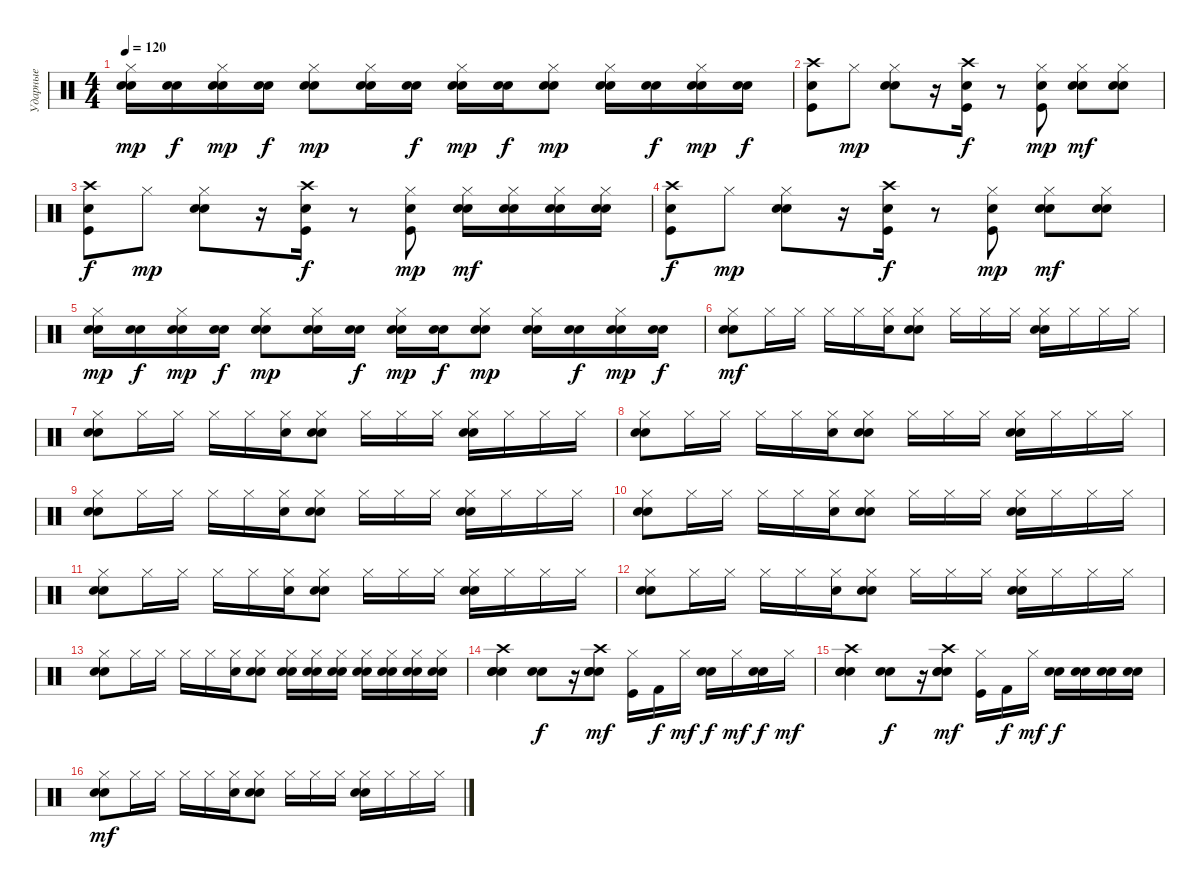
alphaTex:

\track ("Ударные" "Ударные") {instrument percussion}
\staff {score}
\articulation defaults
\ts (4 4)
\tempo 120
\clef neutral
\ks c
("Hi-Hat (closed)" "Electric Snare (hit)" "Electric Snare (hit)").16{dy mp} ("Electric Snare (hit)" "Electric Snare (hit)").16{dy f} ("Hi-Hat (closed)" "Electric Snare (hit)" "Electric Snare (hit)").16{dy mp} ("Electric Snare (hit)" "Electric Snare (hit)").16{dy f} ("Hi-Hat (closed)" "Electric Snare (hit)" "Electric Snare (hit)").8{dy mp} ("Hi-Hat (closed)" "Electric Snare (hit)" "Electric Snare (hit)").16 ("Electric Snare (hit)" "Electric Snare (hit)").16{dy f} ("Hi-Hat (closed)" "Electric Snare (hit)" "Electric Snare (hit)").16{dy mp} ("Electric Snare (hit)" "Electric Snare (hit)").16{dy f} ("Hi-Hat (closed)" "Electric Snare (hit)" "Electric Snare (hit)").8{dy mp} ("Hi-Hat (closed)" "Electric Snare (hit)" "Electric Snare (hit)").16 ("Electric Snare (hit)" "Electric Snare (hit)").16{dy f} ("Hi-Hat (closed)" "Electric Snare (hit)" "Electric Snare (hit)").16{dy mp} ("Electric Snare (hit)" "Electric Snare (hit)").16{dy f} |
("Crash high (hit)" "Kick (hit)" "Snare (hit) 2").8 "Hi-Hat (closed)".8{dy mp} ("Hi-Hat (closed)" "Electric Snare (hit)" "Electric Snare (hit)").8 r.16 ("Crash high (hit)" "Kick (hit)" "Snare (hit) 2").16{dy f} r.8 ("Hi-Hat (closed)" "Kick (hit)" "Snare (hit) 2").8{dy mp} ("Hi-Hat (closed)" "Electric Snare (hit)" "Electric Snare (hit)").8{dy mf} ("Hi-Hat (closed)" "Electric Snare (hit)" "Electric Snare (hit)").8 |
("Crash high (hit)" "Kick (hit)" "Snare (hit) 2").8{dy f} "Hi-Hat (closed)".8{dy mp} ("Hi-Hat (closed)" "Electric Snare (hit)" "Electric Snare (hit)").8 r.16 ("Crash high (hit)" "Kick (hit)" "Snare (hit) 2").16{dy f} r.8 ("Hi-Hat (closed)" "Kick (hit)" "Snare (hit) 2").8{dy mp} ("Hi-Hat (closed)" "Electric Snare (hit)" "Electric Snare (hit)").16{dy mf} ("Hi-Hat (closed)" "Electric Snare (hit)" "Electric Snare (hit)").16 ("Hi-Hat (closed)" "Electric Snare (hit)" "Electric Snare (hit)").16 ("Hi-Hat (closed)" "Electric Snare (hit)" "Electric Snare (hit)").16 |
("Crash high (hit)" "Kick (hit)" "Snare (hit) 2").8{dy f} "Hi-Hat (closed)".8{dy mp} ("Hi-Hat (closed)" "Electric Snare (hit)" "Electric Snare (hit)").8 r.16 ("Crash high (hit)" "Kick (hit)" "Snare (hit) 2").16{dy f} r.8 ("Hi-Hat (closed)" "Kick (hit)" "Snare (hit) 2").8{dy mp} ("Hi-Hat (closed)" "Electric Snare (hit)" "Electric Snare (hit)").8{dy mf} ("Hi-Hat (closed)" "Electric Snare (hit)" "Electric Snare (hit)").8 |
("Hi-Hat (closed)" "Electric Snare (hit)" "Electric Snare (hit)").16{dy mp} ("Electric Snare (hit)" "Electric Snare (hit)").16{dy f} ("Hi-Hat (closed)" "Electric Snare (hit)" "Electric Snare (hit)").16{dy mp} ("Electric Snare (hit)" "Electric Snare (hit)").16{dy f} ("Hi-Hat (closed)" "Electric Snare (hit)" "Electric Snare (hit)").8{dy mp} ("Hi-Hat (closed)" "Electric Snare (hit)" "Electric Snare (hit)").16 ("Electric Snare (hit)" "Electric Snare (hit)").16{dy f} ("Hi-Hat (closed)" "Electric Snare (hit)" "Electric Snare (hit)").16{dy mp} ("Electric Snare (hit)" "Electric Snare (hit)").16{dy f} ("Hi-Hat (closed)" "Electric Snare (hit)" "Electric Snare (hit)").8{dy mp} ("Hi-Hat (closed)" "Electric Snare (hit)" "Electric Snare (hit)").16 ("Electric Snare (hit)" "Electric Snare (hit)").16{dy f} ("Hi-Hat (closed)" "Electric Snare (hit)" "Electric Snare (hit)").16{dy mp} ("Electric Snare (hit)" "Electric Snare (hit)").16{dy f} |
("Hi-Hat (closed)" "Electric Snare (hit)" "Electric Snare (hit)").8{dy mf} "Hi-Hat (closed)".16 "Hi-Hat (closed)".16 "Hi-Hat (closed)".16 "Hi-Hat (closed)".16 ("Hi-Hat (closed)" "Electric Snare (hit)").16 ("Hi-Hat (closed)" "Electric Snare (hit)" "Electric Snare (hit)").8 "Hi-Hat (closed)".16 "Hi-Hat (closed)".16 "Hi-Hat (closed)".16 ("Hi-Hat (closed)" "Electric Snare (hit)" "Electric Snare (hit)").16 "Hi-Hat (closed)".16 "Hi-Hat (closed)".16 "Hi-Hat (closed)".16 |
("Hi-Hat (closed)" "Electric Snare (hit)" "Electric Snare (hit)").8 "Hi-Hat (closed)".16 "Hi-Hat (closed)".16 "Hi-Hat (closed)".16 "Hi-Hat (closed)".16 ("Hi-Hat (closed)" "Electric Snare (hit)").16 ("Hi-Hat (closed)" "Electric Snare (hit)" "Electric Snare (hit)").8 "Hi-Hat (closed)".16 "Hi-Hat (closed)".16 "Hi-Hat (closed)".16 ("Hi-Hat (closed)" "Electric Snare (hit)" "Electric Snare (hit)").16 "Hi-Hat (closed)".16 "Hi-Hat (closed)".16 "Hi-Hat (closed)".16 |
("Hi-Hat (closed)" "Electric Snare (hit)" "Electric Snare (hit)").8 "Hi-Hat (closed)".16 "Hi-Hat (closed)".16 "Hi-Hat (closed)".16 "Hi-Hat (closed)".16 ("Hi-Hat (closed)" "Electric Snare (hit)").16 ("Hi-Hat (closed)" "Electric Snare (hit)" "Electric Snare (hit)").8 "Hi-Hat (closed)".16 "Hi-Hat (closed)".16 "Hi-Hat (closed)".16 ("Hi-Hat (closed)" "Electric Snare (hit)" "Electric Snare (hit)").16 "Hi-Hat (closed)".16 "Hi-Hat (closed)".16 "Hi-Hat (closed)".16 |
("Hi-Hat (closed)" "Electric Snare (hit)" "Electric Snare (hit)").8 "Hi-Hat (closed)".16 "Hi-Hat (closed)".16 "Hi-Hat (closed)".16 "Hi-Hat (closed)".16 ("Hi-Hat (closed)" "Electric Snare (hit)").16 ("Hi-Hat (closed)" "Electric Snare (hit)" "Electric Snare (hit)").8 "Hi-Hat (closed)".16 "Hi-Hat (closed)".16 "Hi-Hat (closed)".16 ("Hi-Hat (closed)" "Electric Snare (hit)" "Electric Snare (hit)").16 "Hi-Hat (closed)".16 "Hi-Hat (closed)".16 "Hi-Hat (closed)".16 |
("Hi-Hat (closed)" "Electric Snare (hit)" "Electric Snare (hit)").8 "Hi-Hat (closed)".16 "Hi-Hat (closed)".16 "Hi-Hat (closed)".16 "Hi-Hat (closed)".16 ("Hi-Hat (closed)" "Electric Snare (hit)").16 ("Hi-Hat (closed)" "Electric Snare (hit)" "Electric Snare (hit)").8 "Hi-Hat (closed)".16 "Hi-Hat (closed)".16 "Hi-Hat (closed)".16 ("Hi-Hat (closed)" "Electric Snare (hit)" "Electric Snare (hit)").16 "Hi-Hat (closed)".16 "Hi-Hat (closed)".16 "Hi-Hat (closed)".16 |
("Hi-Hat (closed)" "Electric Snare (hit)" "Electric Snare (hit)").8 "Hi-Hat (closed)".16 "Hi-Hat (closed)".16 "Hi-Hat (closed)".16 "Hi-Hat (closed)".16 ("Hi-Hat (closed)" "Electric Snare (hit)").16 ("Hi-Hat (closed)" "Electric Snare (hit)" "Electric Snare (hit)").8 "Hi-Hat (closed)".16 "Hi-Hat (closed)".16 "Hi-Hat (closed)".16 ("Hi-Hat (closed)" "Electric Snare (hit)" "Electric Snare (hit)").16 "Hi-Hat (closed)".16 "Hi-Hat (closed)".16 "Hi-Hat (closed)".16 |
("Hi-Hat (closed)" "Electric Snare (hit)" "Electric Snare (hit)").8 "Hi-Hat (closed)".16 "Hi-Hat (closed)".16 "Hi-Hat (closed)".16 "Hi-Hat (closed)".16 ("Hi-Hat (closed)" "Electric Snare (hit)").16 ("Hi-Hat (closed)" "Electric Snare (hit)" "Electric Snare (hit)").8 "Hi-Hat (closed)".16 "Hi-Hat (closed)".16 "Hi-Hat (closed)".16 ("Hi-Hat (closed)" "Electric Snare (hit)" "Electric Snare (hit)").16 "Hi-Hat (closed)".16 "Hi-Hat (closed)".16 "Hi-Hat (closed)".16 |
("Hi-Hat (closed)" "Electric Snare (hit)" "Electric Snare (hit)").8 "Hi-Hat (closed)".16 "Hi-Hat (closed)".16 "Hi-Hat (closed)".16 "Hi-Hat (closed)".16 ("Hi-Hat (closed)" "Electric Snare (hit)").16 ("Hi-Hat (closed)" "Electric Snare (hit)" "Electric Snare (hit)").8 ("Hi-Hat (closed)" "Electric Snare (hit)" "Electric Snare (hit)").16 ("Hi-Hat (closed)" "Electric Snare (hit)" "Electric Snare (hit)").16 ("Hi-Hat (closed)" "Electric Snare (hit)" "Electric Snare (hit)").16 ("Hi-Hat (closed)" "Electric Snare (hit)" "Electric Snare (hit)").16 ("Hi-Hat (closed)" "Electric Snare (hit)" "Electric Snare (hit)").16 ("Hi-Hat (closed)" "Electric Snare (hit)" "Electric Snare (hit)").16 ("Hi-Hat (closed)" "Electric Snare (hit)" "Electric Snare (hit)").16 |
("Crash high (hit)" "Electric Snare (hit)" "Electric Snare (hit)" "Snare (hit) 2").4 ("Electric Snare (hit)" "Electric Snare (hit)").8{dy f} r.16 ("Crash high (hit)" "Electric Snare (hit)" "Electric Snare (hit)" "Snare (hit) 2").8{dy mf} ("Hi-Hat (closed)" "Kick (hit)").16 "Kick (hit) 2".16{dy f} "Hi-Hat (closed)".16{dy mf} ("Electric Snare (hit)" "Electric Snare (hit)").16{dy f} "Hi-Hat (closed)".16{dy mf} ("Electric Snare (hit)" "Electric Snare (hit)").16{dy f} "Hi-Hat (closed)".16{dy mf} |
("Crash high (hit)" "Electric Snare (hit)" "Electric Snare (hit)" "Snare (hit) 2").4 ("Electric Snare (hit)" "Electric Snare (hit)").8{dy f} r.16 ("Crash high (hit)" "Electric Snare (hit)" "Electric Snare (hit)" "Snare (hit) 2").8{dy mf} ("Hi-Hat (closed)" "Kick (hit)").16 "Kick (hit) 2".16{dy f} "Hi-Hat (closed)".16{dy mf} ("Electric Snare (hit)" "Electric Snare (hit)").16{dy f} ("Electric Snare (hit)" "Electric Snare (hit)").16 ("Electric Snare (hit)" "Electric Snare (hit)").16 ("Electric Snare (hit)" "Electric Snare (hit)").16 |
("Hi-Hat (closed)" "Electric Snare (hit)" "Electric Snare (hit)").8{dy mf} "Hi-Hat (closed)".16 "Hi-Hat (closed)".16 "Hi-Hat (closed)".16 "Hi-Hat (closed)".16 ("Hi-Hat (closed)" "Electric Snare (hit)").16 ("Hi-Hat (closed)" "Electric Snare (hit)" "Electric Snare (hit)").8 "Hi-Hat (closed)".16 "Hi-Hat (closed)".16 "Hi-Hat (closed)".16 ("Hi-Hat (closed)" "Electric Snare (hit)" "Electric Snare (hit)").16 "Hi-Hat (closed)".16 "Hi-Hat (closed)".16 "Hi-Hat (closed)".16
